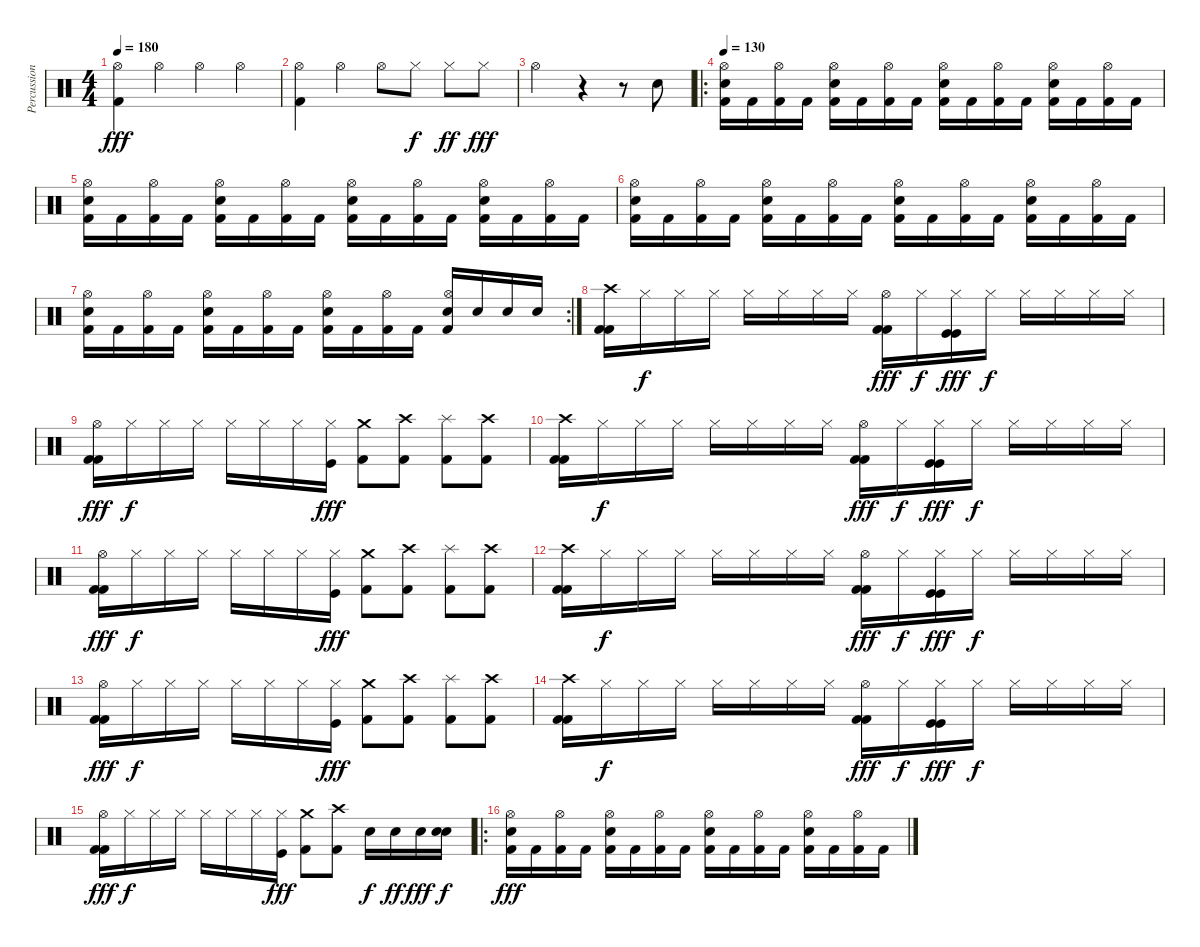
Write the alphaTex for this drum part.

\track ("Percussion" "Percussion") {instrument percussion}
\staff {score}
\articulation defaults
\ts (4 4)
\tempo 180
\clef neutral
\ks c
("Kick (hit) 2" "Hi-Hat (open)").4{dy fff} "Hi-Hat (open)".4 "Hi-Hat (open)".4 "Hi-Hat (open)".4 |
("Kick (hit) 2" "Hi-Hat (open)").4 "Hi-Hat (open)".4 "Hi-Hat (open)".8 "Hi-Hat (closed)".8{dy f} "Hi-Hat (closed)".8{dy ff} "Hi-Hat (closed)".8{dy fff} |
"Hi-Hat (open)".2 r.4 r.8 "Snare (hit) 2".8 |
\ro
\tempo 130
("Kick (hit) 2" "Snare (hit) 2" "Hi-Hat (open)").16 "Kick (hit) 2".16 ("Kick (hit) 2" "Hi-Hat (open)").16 "Kick (hit) 2".16 ("Kick (hit) 2" "Snare (hit) 2" "Hi-Hat (open)").16 "Kick (hit) 2".16 ("Kick (hit) 2" "Hi-Hat (open)").16 "Kick (hit) 2".16 ("Kick (hit) 2" "Snare (hit) 2" "Hi-Hat (open)").16 "Kick (hit) 2".16 ("Kick (hit) 2" "Hi-Hat (open)").16 "Kick (hit) 2".16 ("Kick (hit) 2" "Snare (hit) 2" "Hi-Hat (open)").16 "Kick (hit) 2".16 ("Kick (hit) 2" "Hi-Hat (open)").16 "Kick (hit) 2".16 |
("Kick (hit) 2" "Snare (hit) 2" "Hi-Hat (open)").16 "Kick (hit) 2".16 ("Kick (hit) 2" "Hi-Hat (open)").16 "Kick (hit) 2".16 ("Kick (hit) 2" "Snare (hit) 2" "Hi-Hat (open)").16 "Kick (hit) 2".16 ("Kick (hit) 2" "Hi-Hat (open)").16 "Kick (hit) 2".16 ("Kick (hit) 2" "Snare (hit) 2" "Hi-Hat (open)").16 "Kick (hit) 2".16 ("Kick (hit) 2" "Hi-Hat (open)").16 "Kick (hit) 2".16 ("Kick (hit) 2" "Snare (hit) 2" "Hi-Hat (open)").16 "Kick (hit) 2".16 ("Kick (hit) 2" "Hi-Hat (open)").16 "Kick (hit) 2".16 |
("Kick (hit) 2" "Snare (hit) 2" "Hi-Hat (open)").16 "Kick (hit) 2".16 ("Kick (hit) 2" "Hi-Hat (open)").16 "Kick (hit) 2".16 ("Kick (hit) 2" "Snare (hit) 2" "Hi-Hat (open)").16 "Kick (hit) 2".16 ("Kick (hit) 2" "Hi-Hat (open)").16 "Kick (hit) 2".16 ("Kick (hit) 2" "Snare (hit) 2" "Hi-Hat (open)").16 "Kick (hit) 2".16 ("Kick (hit) 2" "Hi-Hat (open)").16 "Kick (hit) 2".16 ("Kick (hit) 2" "Snare (hit) 2" "Hi-Hat (open)").16 "Kick (hit) 2".16 ("Kick (hit) 2" "Hi-Hat (open)").16 "Kick (hit) 2".16 |
\rc 2
("Kick (hit) 2" "Snare (hit) 2" "Hi-Hat (open)").16 "Kick (hit) 2".16 ("Kick (hit) 2" "Hi-Hat (open)").16 "Kick (hit) 2".16 ("Kick (hit) 2" "Snare (hit) 2" "Hi-Hat (open)").16 "Kick (hit) 2".16 ("Kick (hit) 2" "Hi-Hat (open)").16 "Kick (hit) 2".16 ("Kick (hit) 2" "Snare (hit) 2" "Hi-Hat (open)").16 "Kick (hit) 2".16 ("Kick (hit) 2" "Hi-Hat (open)").16 "Kick (hit) 2".16 ("Kick (hit) 2" "Snare (hit) 2" "Hi-Hat (open)").16 "Snare (hit) 2".16 "Snare (hit) 2".16 "Snare (hit) 2".16 |
("Kick (hit) 2" "Kick (hit) 2" "Crash high (hit)").16 "Hi-Hat (closed)".16{dy f} "Hi-Hat (closed)".16 "Hi-Hat (closed)".16 "Hi-Hat (closed)".16 "Hi-Hat (closed)".16 "Hi-Hat (closed)".16 "Hi-Hat (closed)".16 ("Kick (hit) 2" "Kick (hit) 2" "Hi-Hat (open)").16{dy fff} "Hi-Hat (closed)".16{dy f} ("Kick (hit)" "Kick (hit)" "Hi-Hat (closed)").16{dy fff} "Hi-Hat (closed)".16{dy f} "Hi-Hat (closed)".16 "Hi-Hat (closed)".16 "Hi-Hat (closed)".16 "Hi-Hat (closed)".16 |
("Kick (hit) 2" "Kick (hit) 2" "Hi-Hat (open)").16{dy fff} "Hi-Hat (closed)".16{dy f} "Hi-Hat (closed)".16 "Hi-Hat (closed)".16 "Hi-Hat (closed)".16 "Hi-Hat (closed)".16 "Hi-Hat (closed)".16 ("Kick (hit)" "Hi-Hat (closed)").16{dy fff} ("Kick (hit) 2" "Crash medium (hit)").8 ("Kick (hit) 2" "Crash high (hit)").8 ("Kick (hit) 2" "Splash (hit)").8 ("Kick (hit) 2" "Crash high (hit)").8 |
("Kick (hit) 2" "Kick (hit) 2" "Crash high (hit)").16 "Hi-Hat (closed)".16{dy f} "Hi-Hat (closed)".16 "Hi-Hat (closed)".16 "Hi-Hat (closed)".16 "Hi-Hat (closed)".16 "Hi-Hat (closed)".16 "Hi-Hat (closed)".16 ("Kick (hit) 2" "Kick (hit) 2" "Hi-Hat (open)").16{dy fff} "Hi-Hat (closed)".16{dy f} ("Kick (hit)" "Kick (hit)" "Hi-Hat (closed)").16{dy fff} "Hi-Hat (closed)".16{dy f} "Hi-Hat (closed)".16 "Hi-Hat (closed)".16 "Hi-Hat (closed)".16 "Hi-Hat (closed)".16 |
("Kick (hit) 2" "Kick (hit) 2" "Hi-Hat (open)").16{dy fff} "Hi-Hat (closed)".16{dy f} "Hi-Hat (closed)".16 "Hi-Hat (closed)".16 "Hi-Hat (closed)".16 "Hi-Hat (closed)".16 "Hi-Hat (closed)".16 ("Kick (hit)" "Hi-Hat (closed)").16{dy fff} ("Kick (hit) 2" "Crash medium (hit)").8 ("Kick (hit) 2" "Crash high (hit)").8 ("Kick (hit) 2" "Splash (hit)").8 ("Kick (hit) 2" "Crash high (hit)").8 |
("Kick (hit) 2" "Kick (hit) 2" "Crash high (hit)").16 "Hi-Hat (closed)".16{dy f} "Hi-Hat (closed)".16 "Hi-Hat (closed)".16 "Hi-Hat (closed)".16 "Hi-Hat (closed)".16 "Hi-Hat (closed)".16 "Hi-Hat (closed)".16 ("Kick (hit) 2" "Kick (hit) 2" "Hi-Hat (open)").16{dy fff} "Hi-Hat (closed)".16{dy f} ("Kick (hit)" "Kick (hit)" "Hi-Hat (closed)").16{dy fff} "Hi-Hat (closed)".16{dy f} "Hi-Hat (closed)".16 "Hi-Hat (closed)".16 "Hi-Hat (closed)".16 "Hi-Hat (closed)".16 |
("Kick (hit) 2" "Kick (hit) 2" "Hi-Hat (open)").16{dy fff} "Hi-Hat (closed)".16{dy f} "Hi-Hat (closed)".16 "Hi-Hat (closed)".16 "Hi-Hat (closed)".16 "Hi-Hat (closed)".16 "Hi-Hat (closed)".16 ("Kick (hit)" "Hi-Hat (closed)").16{dy fff} ("Kick (hit) 2" "Crash medium (hit)").8 ("Kick (hit) 2" "Crash high (hit)").8 ("Kick (hit) 2" "Splash (hit)").8 ("Kick (hit) 2" "Crash high (hit)").8 |
("Kick (hit) 2" "Kick (hit) 2" "Crash high (hit)").16 "Hi-Hat (closed)".16{dy f} "Hi-Hat (closed)".16 "Hi-Hat (closed)".16 "Hi-Hat (closed)".16 "Hi-Hat (closed)".16 "Hi-Hat (closed)".16 "Hi-Hat (closed)".16 ("Kick (hit) 2" "Kick (hit) 2" "Hi-Hat (open)").16{dy fff} "Hi-Hat (closed)".16{dy f} ("Kick (hit)" "Kick (hit)" "Hi-Hat (closed)").16{dy fff} "Hi-Hat (closed)".16{dy f} "Hi-Hat (closed)".16 "Hi-Hat (closed)".16 "Hi-Hat (closed)".16 "Hi-Hat (closed)".16 |
("Kick (hit) 2" "Kick (hit) 2" "Hi-Hat (open)").16{dy fff} "Hi-Hat (closed)".16{dy f} "Hi-Hat (closed)".16 "Hi-Hat (closed)".16 "Hi-Hat (closed)".16 "Hi-Hat (closed)".16 "Hi-Hat (closed)".16 ("Kick (hit)" "Hi-Hat (closed)").16{dy fff} ("Kick (hit) 2" "Crash medium (hit)").8 ("Kick (hit) 2" "Crash high (hit)").8 "Snare (hit) 2".16{dy f} "Snare (hit) 2".16{dy ff} "Snare (hit) 2".16{dy fff} ("Snare (hit) 2" "Snare (hit) 2").16{dy f} |
\ro
("Kick (hit) 2" "Snare (hit) 2" "Hi-Hat (open)").16{dy fff} "Kick (hit) 2".16 ("Kick (hit) 2" "Hi-Hat (open)").16 "Kick (hit) 2".16 ("Kick (hit) 2" "Snare (hit) 2" "Hi-Hat (open)").16 "Kick (hit) 2".16 ("Kick (hit) 2" "Hi-Hat (open)").16 "Kick (hit) 2".16 ("Kick (hit) 2" "Snare (hit) 2" "Hi-Hat (open)").16 "Kick (hit) 2".16 ("Kick (hit) 2" "Hi-Hat (open)").16 "Kick (hit) 2".16 ("Kick (hit) 2" "Snare (hit) 2" "Hi-Hat (open)").16 "Kick (hit) 2".16 ("Kick (hit) 2" "Hi-Hat (open)").16 "Kick (hit) 2".16
